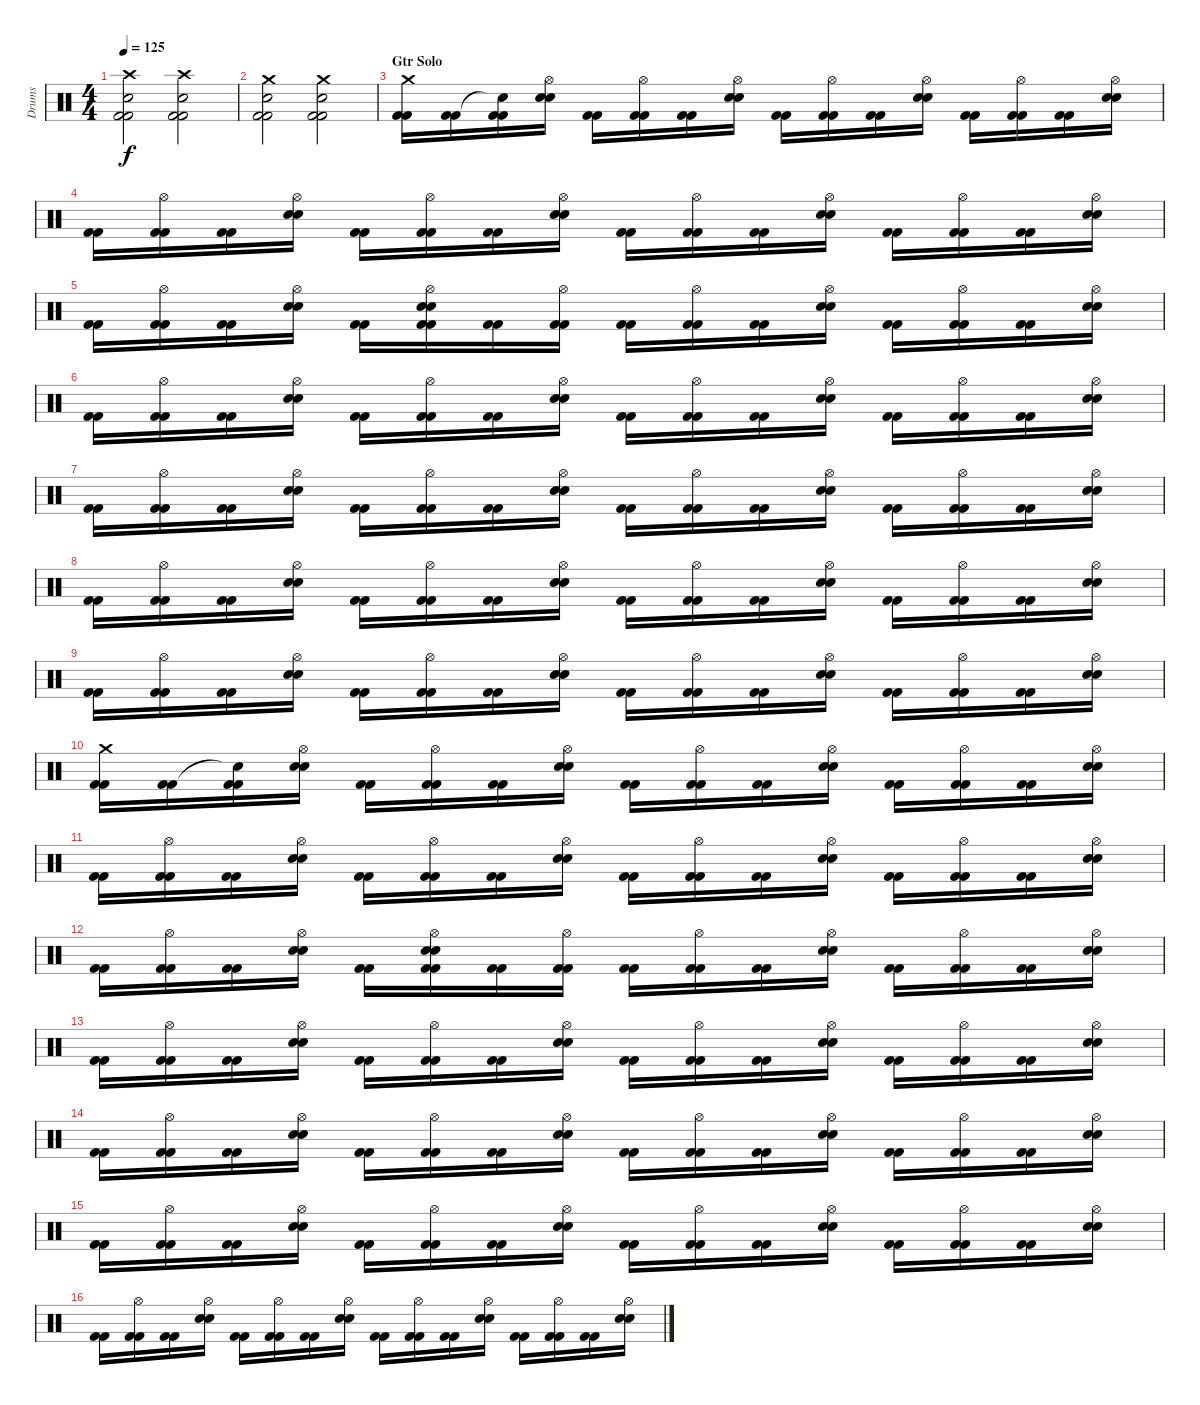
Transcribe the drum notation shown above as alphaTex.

\track ("Drums" "Drums") {instrument percussion}
\staff {score}
\articulation defaults
\ts (4 4)
\tempo 125
\clef neutral
\ks c
("Crash high (hit)" "Snare (hit) 2" "Kick (hit) 2" "Kick (hit) 2").2{dy f} ("Crash high (hit)" "Snare (hit) 2" "Kick (hit) 2" "Kick (hit) 2").2 |
("Crash medium (hit)" "Snare (hit) 2" "Kick (hit) 2" "Kick (hit) 2").2 ("Crash medium (hit)" "Snare (hit) 2" "Kick (hit) 2" "Kick (hit) 2").2 |
\section ("" "Gtr Solo")
("Crash medium (hit)" "Kick (hit) 2" "Kick (hit) 2").16 ("Kick (hit) 2" "Kick (hit) 2").16 ("Snare (hit)"{t} "Kick (hit) 2" "Kick (hit) 2").16 ("Hi-Hat (open)" "Snare (hit) 2" "Snare (hit) 2").16 ("Kick (hit) 2" "Kick (hit) 2").16 ("Hi-Hat (open)" "Kick (hit) 2" "Kick (hit) 2").16 ("Kick (hit) 2" "Kick (hit) 2").16 ("Hi-Hat (open)" "Snare (hit) 2" "Snare (hit) 2").16 ("Kick (hit) 2" "Kick (hit) 2").16 ("Hi-Hat (open)" "Kick (hit) 2" "Kick (hit) 2").16 ("Kick (hit) 2" "Kick (hit) 2").16 ("Hi-Hat (open)" "Snare (hit) 2" "Snare (hit) 2").16 ("Kick (hit) 2" "Kick (hit) 2").16 ("Hi-Hat (open)" "Kick (hit) 2" "Kick (hit) 2").16 ("Kick (hit) 2" "Kick (hit) 2").16 ("Hi-Hat (open)" "Snare (hit) 2" "Snare (hit) 2").16 |
("Kick (hit) 2" "Kick (hit) 2").16 ("Hi-Hat (open)" "Kick (hit) 2" "Kick (hit) 2").16 ("Kick (hit) 2" "Kick (hit) 2").16 ("Hi-Hat (open)" "Snare (hit) 2" "Snare (hit) 2").16 ("Kick (hit) 2" "Kick (hit) 2").16 ("Hi-Hat (open)" "Kick (hit) 2" "Kick (hit) 2").16 ("Kick (hit) 2" "Kick (hit) 2").16 ("Hi-Hat (open)" "Snare (hit) 2" "Snare (hit) 2").16 ("Kick (hit) 2" "Kick (hit) 2").16 ("Hi-Hat (open)" "Kick (hit) 2" "Kick (hit) 2").16 ("Kick (hit) 2" "Kick (hit) 2").16 ("Hi-Hat (open)" "Snare (hit) 2" "Snare (hit) 2").16 ("Kick (hit) 2" "Kick (hit) 2").16 ("Hi-Hat (open)" "Kick (hit) 2" "Kick (hit) 2").16 ("Kick (hit) 2" "Kick (hit) 2").16 ("Hi-Hat (open)" "Snare (hit) 2" "Snare (hit) 2").16 |
("Kick (hit) 2" "Kick (hit) 2").16 ("Hi-Hat (open)" "Kick (hit) 2" "Kick (hit) 2").16 ("Kick (hit) 2" "Kick (hit) 2").16 ("Hi-Hat (open)" "Snare (hit) 2" "Snare (hit) 2").16 ("Kick (hit) 2" "Kick (hit) 2").16 ("Hi-Hat (open)" "Snare (hit) 2" "Snare (hit) 2" "Kick (hit) 2" "Kick (hit) 2").16 ("Kick (hit) 2" "Kick (hit) 2").16 ("Hi-Hat (open)" "Kick (hit) 2" "Kick (hit) 2").16 ("Kick (hit) 2" "Kick (hit) 2").16 ("Hi-Hat (open)" "Kick (hit) 2" "Kick (hit) 2").16 ("Kick (hit) 2" "Kick (hit) 2").16 ("Hi-Hat (open)" "Snare (hit) 2" "Snare (hit) 2").16 ("Kick (hit) 2" "Kick (hit) 2").16 ("Hi-Hat (open)" "Kick (hit) 2" "Kick (hit) 2").16 ("Kick (hit) 2" "Kick (hit) 2").16 ("Hi-Hat (open)" "Snare (hit) 2" "Snare (hit) 2").16 |
("Kick (hit) 2" "Kick (hit) 2").16 ("Hi-Hat (open)" "Kick (hit) 2" "Kick (hit) 2").16 ("Kick (hit) 2" "Kick (hit) 2").16 ("Hi-Hat (open)" "Snare (hit) 2" "Snare (hit) 2").16 ("Kick (hit) 2" "Kick (hit) 2").16 ("Hi-Hat (open)" "Kick (hit) 2" "Kick (hit) 2").16 ("Kick (hit) 2" "Kick (hit) 2").16 ("Hi-Hat (open)" "Snare (hit) 2" "Snare (hit) 2").16 ("Kick (hit) 2" "Kick (hit) 2").16 ("Hi-Hat (open)" "Kick (hit) 2" "Kick (hit) 2").16 ("Kick (hit) 2" "Kick (hit) 2").16 ("Hi-Hat (open)" "Snare (hit) 2" "Snare (hit) 2").16 ("Kick (hit) 2" "Kick (hit) 2").16 ("Hi-Hat (open)" "Kick (hit) 2" "Kick (hit) 2").16 ("Kick (hit) 2" "Kick (hit) 2").16 ("Hi-Hat (open)" "Snare (hit) 2" "Snare (hit) 2").16 |
("Kick (hit) 2" "Kick (hit) 2").16 ("Hi-Hat (open)" "Kick (hit) 2" "Kick (hit) 2").16 ("Kick (hit) 2" "Kick (hit) 2").16 ("Hi-Hat (open)" "Snare (hit) 2" "Snare (hit) 2").16 ("Kick (hit) 2" "Kick (hit) 2").16 ("Hi-Hat (open)" "Kick (hit) 2" "Kick (hit) 2").16 ("Kick (hit) 2" "Kick (hit) 2").16 ("Hi-Hat (open)" "Snare (hit) 2" "Snare (hit) 2").16 ("Kick (hit) 2" "Kick (hit) 2").16 ("Hi-Hat (open)" "Kick (hit) 2" "Kick (hit) 2").16 ("Kick (hit) 2" "Kick (hit) 2").16 ("Hi-Hat (open)" "Snare (hit) 2" "Snare (hit) 2").16 ("Kick (hit) 2" "Kick (hit) 2").16 ("Hi-Hat (open)" "Kick (hit) 2" "Kick (hit) 2").16 ("Kick (hit) 2" "Kick (hit) 2").16 ("Hi-Hat (open)" "Snare (hit) 2" "Snare (hit) 2").16 |
("Kick (hit) 2" "Kick (hit) 2").16 ("Hi-Hat (open)" "Kick (hit) 2" "Kick (hit) 2").16 ("Kick (hit) 2" "Kick (hit) 2").16 ("Hi-Hat (open)" "Snare (hit) 2" "Snare (hit) 2").16 ("Kick (hit) 2" "Kick (hit) 2").16 ("Hi-Hat (open)" "Kick (hit) 2" "Kick (hit) 2").16 ("Kick (hit) 2" "Kick (hit) 2").16 ("Hi-Hat (open)" "Snare (hit) 2" "Snare (hit) 2").16 ("Kick (hit) 2" "Kick (hit) 2").16 ("Hi-Hat (open)" "Kick (hit) 2" "Kick (hit) 2").16 ("Kick (hit) 2" "Kick (hit) 2").16 ("Hi-Hat (open)" "Snare (hit) 2" "Snare (hit) 2").16 ("Kick (hit) 2" "Kick (hit) 2").16 ("Hi-Hat (open)" "Kick (hit) 2" "Kick (hit) 2").16 ("Kick (hit) 2" "Kick (hit) 2").16 ("Hi-Hat (open)" "Snare (hit) 2" "Snare (hit) 2").16 |
("Kick (hit) 2" "Kick (hit) 2").16 ("Hi-Hat (open)" "Kick (hit) 2" "Kick (hit) 2").16 ("Kick (hit) 2" "Kick (hit) 2").16 ("Hi-Hat (open)" "Snare (hit) 2" "Snare (hit) 2").16 ("Kick (hit) 2" "Kick (hit) 2").16 ("Hi-Hat (open)" "Kick (hit) 2" "Kick (hit) 2").16 ("Kick (hit) 2" "Kick (hit) 2").16 ("Hi-Hat (open)" "Snare (hit) 2" "Snare (hit) 2").16 ("Kick (hit) 2" "Kick (hit) 2").16 ("Hi-Hat (open)" "Kick (hit) 2" "Kick (hit) 2").16 ("Kick (hit) 2" "Kick (hit) 2").16 ("Hi-Hat (open)" "Snare (hit) 2" "Snare (hit) 2").16 ("Kick (hit) 2" "Kick (hit) 2").16 ("Hi-Hat (open)" "Kick (hit) 2" "Kick (hit) 2").16 ("Kick (hit) 2" "Kick (hit) 2").16 ("Hi-Hat (open)" "Snare (hit) 2" "Snare (hit) 2").16 |
("Crash medium (hit)" "Kick (hit) 2" "Kick (hit) 2").16 ("Kick (hit) 2" "Kick (hit) 2").16 ("Snare (hit)"{t} "Kick (hit) 2" "Kick (hit) 2").16 ("Hi-Hat (open)" "Snare (hit) 2" "Snare (hit) 2").16 ("Kick (hit) 2" "Kick (hit) 2").16 ("Hi-Hat (open)" "Kick (hit) 2" "Kick (hit) 2").16 ("Kick (hit) 2" "Kick (hit) 2").16 ("Hi-Hat (open)" "Snare (hit) 2" "Snare (hit) 2").16 ("Kick (hit) 2" "Kick (hit) 2").16 ("Hi-Hat (open)" "Kick (hit) 2" "Kick (hit) 2").16 ("Kick (hit) 2" "Kick (hit) 2").16 ("Hi-Hat (open)" "Snare (hit) 2" "Snare (hit) 2").16 ("Kick (hit) 2" "Kick (hit) 2").16 ("Hi-Hat (open)" "Kick (hit) 2" "Kick (hit) 2").16 ("Kick (hit) 2" "Kick (hit) 2").16 ("Hi-Hat (open)" "Snare (hit) 2" "Snare (hit) 2").16 |
("Kick (hit) 2" "Kick (hit) 2").16 ("Hi-Hat (open)" "Kick (hit) 2" "Kick (hit) 2").16 ("Kick (hit) 2" "Kick (hit) 2").16 ("Hi-Hat (open)" "Snare (hit) 2" "Snare (hit) 2").16 ("Kick (hit) 2" "Kick (hit) 2").16 ("Hi-Hat (open)" "Kick (hit) 2" "Kick (hit) 2").16 ("Kick (hit) 2" "Kick (hit) 2").16 ("Hi-Hat (open)" "Snare (hit) 2" "Snare (hit) 2").16 ("Kick (hit) 2" "Kick (hit) 2").16 ("Hi-Hat (open)" "Kick (hit) 2" "Kick (hit) 2").16 ("Kick (hit) 2" "Kick (hit) 2").16 ("Hi-Hat (open)" "Snare (hit) 2" "Snare (hit) 2").16 ("Kick (hit) 2" "Kick (hit) 2").16 ("Hi-Hat (open)" "Kick (hit) 2" "Kick (hit) 2").16 ("Kick (hit) 2" "Kick (hit) 2").16 ("Hi-Hat (open)" "Snare (hit) 2" "Snare (hit) 2").16 |
("Kick (hit) 2" "Kick (hit) 2").16 ("Hi-Hat (open)" "Kick (hit) 2" "Kick (hit) 2").16 ("Kick (hit) 2" "Kick (hit) 2").16 ("Hi-Hat (open)" "Snare (hit) 2" "Snare (hit) 2").16 ("Kick (hit) 2" "Kick (hit) 2").16 ("Hi-Hat (open)" "Snare (hit) 2" "Snare (hit) 2" "Kick (hit) 2" "Kick (hit) 2").16 ("Kick (hit) 2" "Kick (hit) 2").16 ("Hi-Hat (open)" "Kick (hit) 2" "Kick (hit) 2").16 ("Kick (hit) 2" "Kick (hit) 2").16 ("Hi-Hat (open)" "Kick (hit) 2" "Kick (hit) 2").16 ("Kick (hit) 2" "Kick (hit) 2").16 ("Hi-Hat (open)" "Snare (hit) 2" "Snare (hit) 2").16 ("Kick (hit) 2" "Kick (hit) 2").16 ("Hi-Hat (open)" "Kick (hit) 2" "Kick (hit) 2").16 ("Kick (hit) 2" "Kick (hit) 2").16 ("Hi-Hat (open)" "Snare (hit) 2" "Snare (hit) 2").16 |
("Kick (hit) 2" "Kick (hit) 2").16 ("Hi-Hat (open)" "Kick (hit) 2" "Kick (hit) 2").16 ("Kick (hit) 2" "Kick (hit) 2").16 ("Hi-Hat (open)" "Snare (hit) 2" "Snare (hit) 2").16 ("Kick (hit) 2" "Kick (hit) 2").16 ("Hi-Hat (open)" "Kick (hit) 2" "Kick (hit) 2").16 ("Kick (hit) 2" "Kick (hit) 2").16 ("Hi-Hat (open)" "Snare (hit) 2" "Snare (hit) 2").16 ("Kick (hit) 2" "Kick (hit) 2").16 ("Hi-Hat (open)" "Kick (hit) 2" "Kick (hit) 2").16 ("Kick (hit) 2" "Kick (hit) 2").16 ("Hi-Hat (open)" "Snare (hit) 2" "Snare (hit) 2").16 ("Kick (hit) 2" "Kick (hit) 2").16 ("Hi-Hat (open)" "Kick (hit) 2" "Kick (hit) 2").16 ("Kick (hit) 2" "Kick (hit) 2").16 ("Hi-Hat (open)" "Snare (hit) 2" "Snare (hit) 2").16 |
("Kick (hit) 2" "Kick (hit) 2").16 ("Hi-Hat (open)" "Kick (hit) 2" "Kick (hit) 2").16 ("Kick (hit) 2" "Kick (hit) 2").16 ("Hi-Hat (open)" "Snare (hit) 2" "Snare (hit) 2").16 ("Kick (hit) 2" "Kick (hit) 2").16 ("Hi-Hat (open)" "Kick (hit) 2" "Kick (hit) 2").16 ("Kick (hit) 2" "Kick (hit) 2").16 ("Hi-Hat (open)" "Snare (hit) 2" "Snare (hit) 2").16 ("Kick (hit) 2" "Kick (hit) 2").16 ("Hi-Hat (open)" "Kick (hit) 2" "Kick (hit) 2").16 ("Kick (hit) 2" "Kick (hit) 2").16 ("Hi-Hat (open)" "Snare (hit) 2" "Snare (hit) 2").16 ("Kick (hit) 2" "Kick (hit) 2").16 ("Hi-Hat (open)" "Kick (hit) 2" "Kick (hit) 2").16 ("Kick (hit) 2" "Kick (hit) 2").16 ("Hi-Hat (open)" "Snare (hit) 2" "Snare (hit) 2").16 |
("Kick (hit) 2" "Kick (hit) 2").16 ("Hi-Hat (open)" "Kick (hit) 2" "Kick (hit) 2").16 ("Kick (hit) 2" "Kick (hit) 2").16 ("Hi-Hat (open)" "Snare (hit) 2" "Snare (hit) 2").16 ("Kick (hit) 2" "Kick (hit) 2").16 ("Hi-Hat (open)" "Kick (hit) 2" "Kick (hit) 2").16 ("Kick (hit) 2" "Kick (hit) 2").16 ("Hi-Hat (open)" "Snare (hit) 2" "Snare (hit) 2").16 ("Kick (hit) 2" "Kick (hit) 2").16 ("Hi-Hat (open)" "Kick (hit) 2" "Kick (hit) 2").16 ("Kick (hit) 2" "Kick (hit) 2").16 ("Hi-Hat (open)" "Snare (hit) 2" "Snare (hit) 2").16 ("Kick (hit) 2" "Kick (hit) 2").16 ("Hi-Hat (open)" "Kick (hit) 2" "Kick (hit) 2").16 ("Kick (hit) 2" "Kick (hit) 2").16 ("Hi-Hat (open)" "Snare (hit) 2" "Snare (hit) 2").16 |
("Kick (hit) 2" "Kick (hit) 2").16 ("Hi-Hat (open)" "Kick (hit) 2" "Kick (hit) 2").16 ("Kick (hit) 2" "Kick (hit) 2").16 ("Hi-Hat (open)" "Snare (hit) 2" "Snare (hit) 2").16 ("Kick (hit) 2" "Kick (hit) 2").16 ("Hi-Hat (open)" "Kick (hit) 2" "Kick (hit) 2").16 ("Kick (hit) 2" "Kick (hit) 2").16 ("Hi-Hat (open)" "Snare (hit) 2" "Snare (hit) 2").16 ("Kick (hit) 2" "Kick (hit) 2").16 ("Hi-Hat (open)" "Kick (hit) 2" "Kick (hit) 2").16 ("Kick (hit) 2" "Kick (hit) 2").16 ("Hi-Hat (open)" "Snare (hit) 2" "Snare (hit) 2").16 ("Kick (hit) 2" "Kick (hit) 2").16 ("Hi-Hat (open)" "Kick (hit) 2" "Kick (hit) 2").16 ("Kick (hit) 2" "Kick (hit) 2").16 ("Hi-Hat (open)" "Snare (hit) 2" "Snare (hit) 2").16
